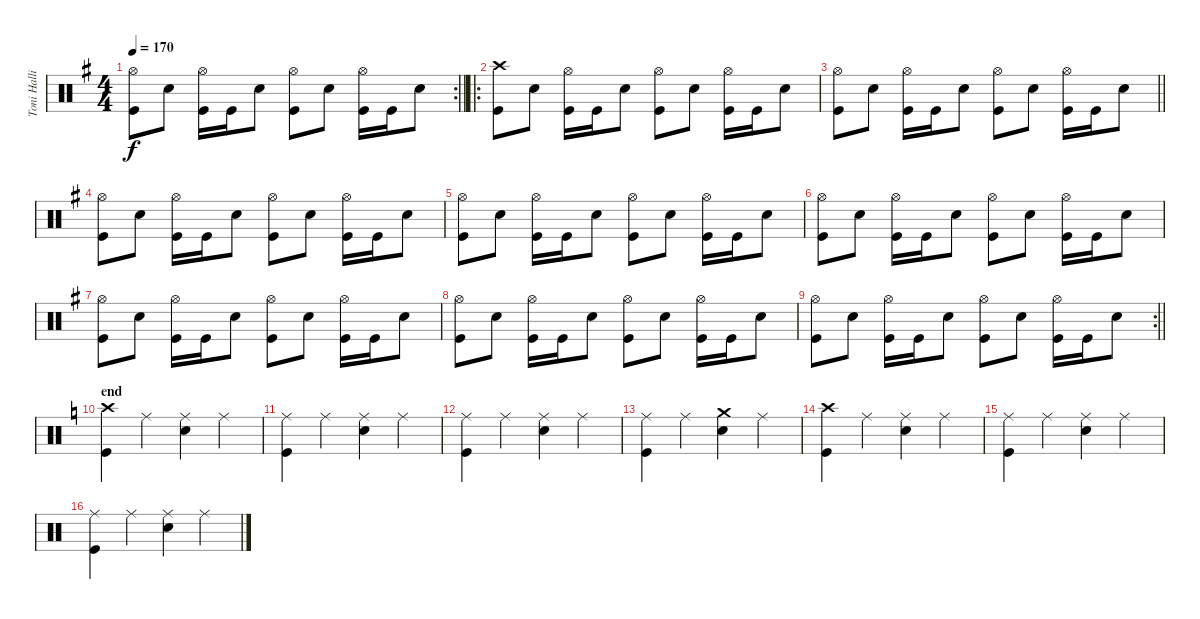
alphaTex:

\track ("Toni Hallio" "Toni Halli") {instrument percussion}
\staff {score}
\articulation defaults
\rc 2
\ts (4 4)
\tempo 170
\clef neutral
\barLineRight lightlight
\ks g
("Hi-Hat (open)" "Kick (hit)").8{dy f} "Snare (hit) 2".8 ("Hi-Hat (open)" "Kick (hit)").16 "Kick (hit)".16 "Snare (hit) 2".8 ("Hi-Hat (open)" "Kick (hit)").8 "Snare (hit) 2".8 ("Hi-Hat (open)" "Kick (hit)").16 "Kick (hit)".16 "Snare (hit) 2".8 |
\ro
("Crash high (hit)" "Kick (hit)").8 "Snare (hit) 2".8 ("Hi-Hat (open)" "Kick (hit)").16 "Kick (hit)".16 "Snare (hit) 2".8 ("Hi-Hat (open)" "Kick (hit)").8 "Snare (hit) 2".8 ("Hi-Hat (open)" "Kick (hit)").16 "Kick (hit)".16 "Snare (hit) 2".8 |
\barLineRight lightlight
("Hi-Hat (open)" "Kick (hit)").8 "Snare (hit) 2".8 ("Hi-Hat (open)" "Kick (hit)").16 "Kick (hit)".16 "Snare (hit) 2".8 ("Hi-Hat (open)" "Kick (hit)").8 "Snare (hit) 2".8 ("Hi-Hat (open)" "Kick (hit)").16 "Kick (hit)".16 "Snare (hit) 2".8 |
("Hi-Hat (open)" "Kick (hit)").8 "Snare (hit) 2".8 ("Hi-Hat (open)" "Kick (hit)").16 "Kick (hit)".16 "Snare (hit) 2".8 ("Hi-Hat (open)" "Kick (hit)").8 "Snare (hit) 2".8 ("Hi-Hat (open)" "Kick (hit)").16 "Kick (hit)".16 "Snare (hit) 2".8 |
("Hi-Hat (open)" "Kick (hit)").8 "Snare (hit) 2".8 ("Hi-Hat (open)" "Kick (hit)").16 "Kick (hit)".16 "Snare (hit) 2".8 ("Hi-Hat (open)" "Kick (hit)").8 "Snare (hit) 2".8 ("Hi-Hat (open)" "Kick (hit)").16 "Kick (hit)".16 "Snare (hit) 2".8 |
("Hi-Hat (open)" "Kick (hit)").8 "Snare (hit) 2".8 ("Hi-Hat (open)" "Kick (hit)").16 "Kick (hit)".16 "Snare (hit) 2".8 ("Hi-Hat (open)" "Kick (hit)").8 "Snare (hit) 2".8 ("Hi-Hat (open)" "Kick (hit)").16 "Kick (hit)".16 "Snare (hit) 2".8 |
("Hi-Hat (open)" "Kick (hit)").8 "Snare (hit) 2".8 ("Hi-Hat (open)" "Kick (hit)").16 "Kick (hit)".16 "Snare (hit) 2".8 ("Hi-Hat (open)" "Kick (hit)").8 "Snare (hit) 2".8 ("Hi-Hat (open)" "Kick (hit)").16 "Kick (hit)".16 "Snare (hit) 2".8 |
("Hi-Hat (open)" "Kick (hit)").8 "Snare (hit) 2".8 ("Hi-Hat (open)" "Kick (hit)").16 "Kick (hit)".16 "Snare (hit) 2".8 ("Hi-Hat (open)" "Kick (hit)").8 "Snare (hit) 2".8 ("Hi-Hat (open)" "Kick (hit)").16 "Kick (hit)".16 "Snare (hit) 2".8 |
\rc 2
\barLineRight lightlight
("Hi-Hat (open)" "Kick (hit)").8 "Snare (hit) 2".8 ("Hi-Hat (open)" "Kick (hit)").16 "Kick (hit)".16 "Snare (hit) 2".8 ("Hi-Hat (open)" "Kick (hit)").8 "Snare (hit) 2".8 ("Hi-Hat (open)" "Kick (hit)").16 "Kick (hit)".16 "Snare (hit) 2".8 |
\section ("" "end")
\ks c
("Crash high (hit)" "Kick (hit)").4 "Ride (middle)".4 ("Ride (middle)" "Snare (hit) 2").4 "Ride (middle)".4 |
("Ride (middle)" "Kick (hit)").4 "Ride (middle)".4 ("Ride (middle)" "Snare (hit) 2").4 "Ride (middle)".4 |
("Ride (middle)" "Kick (hit)").4 "Ride (middle)".4 ("Ride (middle)" "Snare (hit) 2").4 "Ride (middle)".4 |
("Ride (middle)" "Kick (hit)").4 "Ride (middle)".4 ("Crash medium (hit)" "Snare (hit) 2").4 "Ride (middle)".4 |
("Crash high (hit)" "Kick (hit)").4 "Ride (middle)".4 ("Ride (middle)" "Snare (hit) 2").4 "Ride (middle)".4 |
("Ride (middle)" "Kick (hit)").4 "Ride (middle)".4 ("Ride (middle)" "Snare (hit) 2").4 "Ride (middle)".4 |
("Ride (middle)" "Kick (hit)").4 "Ride (middle)".4 ("Ride (middle)" "Snare (hit) 2").4 "Ride (middle)".4
